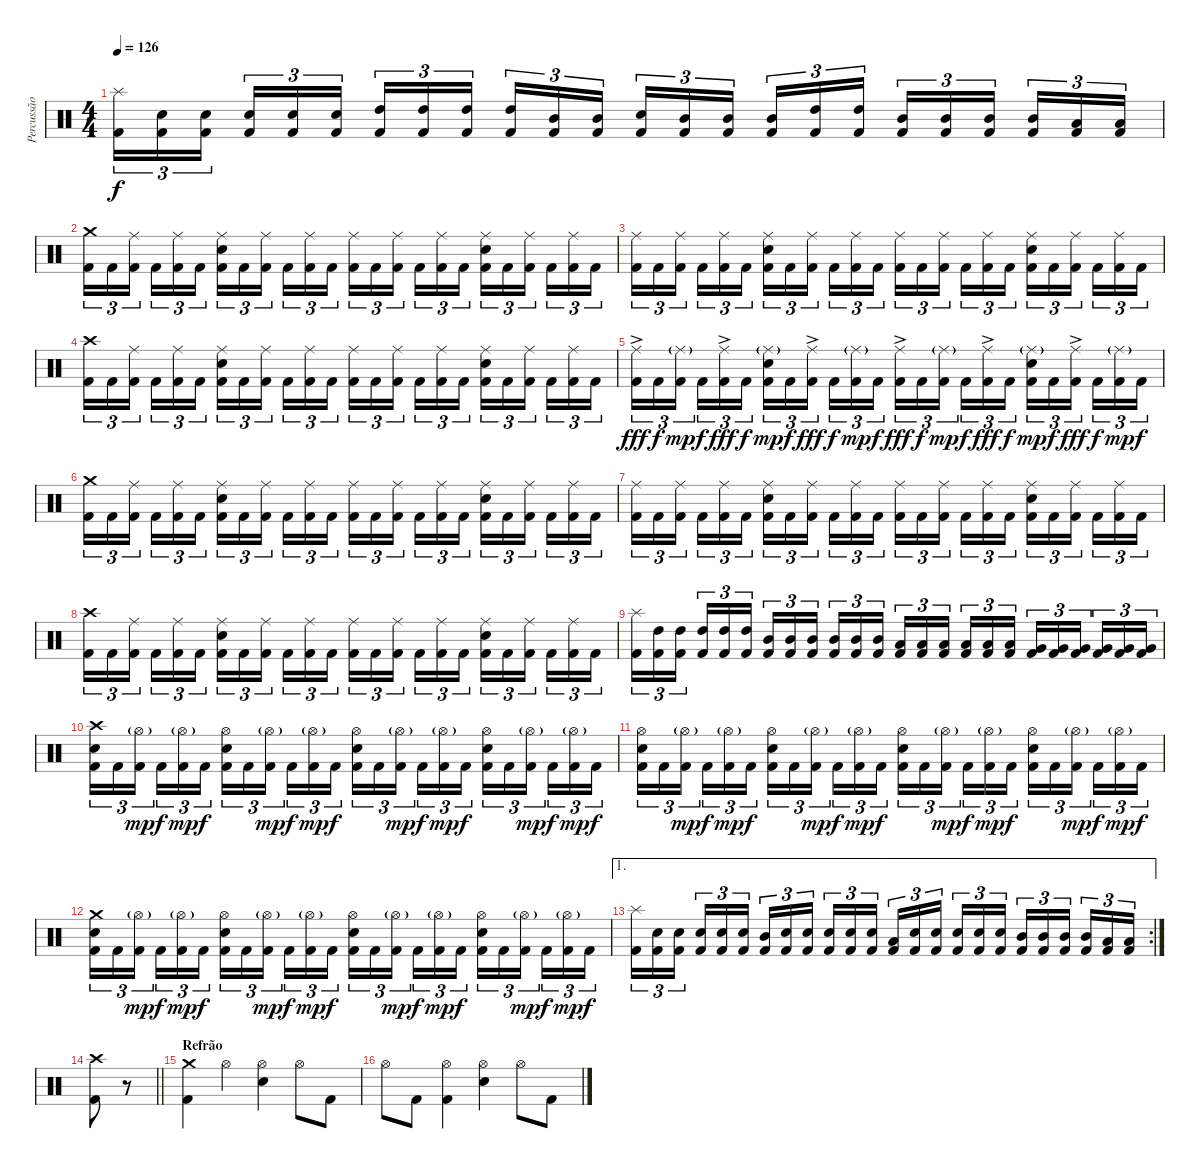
\track ("Percussão" "Percussão") {instrument percussion}
\staff {score}
\articulation defaults
\ts (4 4)
\tempo 126
\clef neutral
\ks c
("Splash (hit)" "Kick (hit) 2").16{tu (3 2) dy f} ("Electric Snare (hit)" "Kick (hit) 2").16{tu (3 2)} ("Electric Snare (hit)" "Kick (hit) 2").16{tu (3 2) beam splitsecondary} ("Electric Snare (hit)" "Kick (hit) 2").16{tu (3 2)} ("Electric Snare (hit)" "Kick (hit) 2").16{tu (3 2)} ("Electric Snare (hit)" "Kick (hit) 2").16{tu (3 2)} ("High Tom (hit)" "Kick (hit) 2").16{tu (3 2)} ("High Tom (hit)" "Kick (hit) 2").16{tu (3 2)} ("High Tom (hit)" "Kick (hit) 2").16{tu (3 2) beam splitsecondary} ("High Tom (hit)" "Kick (hit) 2").16{tu (3 2)} ("Mid Tom (hit)" "Kick (hit) 2").16{tu (3 2)} ("Mid Tom (hit)" "Kick (hit) 2").16{tu (3 2)} ("Electric Snare (hit)" "Kick (hit) 2").16{tu (3 2)} ("Mid Tom (hit)" "Kick (hit) 2").16{tu (3 2)} ("Mid Tom (hit)" "Kick (hit) 2").16{tu (3 2) beam splitsecondary} ("Mid Tom (hit)" "Kick (hit) 2").16{tu (3 2)} ("High Tom (hit)" "Kick (hit) 2").16{tu (3 2)} ("High Tom (hit)" "Kick (hit) 2").16{tu (3 2)} ("Mid Tom (hit)" "Kick (hit) 2").16{tu (3 2)} ("Mid Tom (hit)" "Kick (hit) 2").16{tu (3 2)} ("Mid Tom (hit)" "Kick (hit) 2").16{tu (3 2) beam splitsecondary} ("Mid Tom (hit)" "Kick (hit) 2").16{tu (3 2)} ("Low Tom (hit)" "Kick (hit) 2").16{tu (3 2)} ("Low Tom (hit)" "Kick (hit) 2").16{tu (3 2)} |
("Crash medium (hit)" "Kick (hit) 2").16{tu (3 2)} "Kick (hit) 2".16{tu (3 2)} ("Ride (middle)" "Kick (hit) 2").16{tu (3 2) beam splitsecondary} "Kick (hit) 2".16{tu (3 2)} ("Ride (middle)" "Kick (hit) 2").16{tu (3 2)} "Kick (hit) 2".16{tu (3 2)} ("Ride (middle)" "Electric Snare (hit)" "Kick (hit) 2").16{tu (3 2)} "Kick (hit) 2".16{tu (3 2)} ("Ride (middle)" "Kick (hit) 2").16{tu (3 2) beam splitsecondary} "Kick (hit) 2".16{tu (3 2)} ("Ride (middle)" "Kick (hit) 2").16{tu (3 2)} "Kick (hit) 2".16{tu (3 2)} ("Ride (middle)" "Kick (hit) 2").16{tu (3 2)} "Kick (hit) 2".16{tu (3 2)} ("Ride (middle)" "Kick (hit) 2").16{tu (3 2) beam splitsecondary} "Kick (hit) 2".16{tu (3 2)} ("Ride (middle)" "Kick (hit) 2").16{tu (3 2)} "Kick (hit) 2".16{tu (3 2)} ("Ride (middle)" "Electric Snare (hit)" "Kick (hit) 2").16{tu (3 2)} "Kick (hit) 2".16{tu (3 2)} ("Ride (middle)" "Kick (hit) 2").16{tu (3 2) beam splitsecondary} "Kick (hit) 2".16{tu (3 2)} ("Ride (middle)" "Kick (hit) 2").16{tu (3 2)} "Kick (hit) 2".16{tu (3 2)} |
("Ride (middle)" "Kick (hit) 2").16{tu (3 2)} "Kick (hit) 2".16{tu (3 2)} ("Ride (middle)" "Kick (hit) 2").16{tu (3 2) beam splitsecondary} "Kick (hit) 2".16{tu (3 2)} ("Ride (middle)" "Kick (hit) 2").16{tu (3 2)} "Kick (hit) 2".16{tu (3 2)} ("Ride (middle)" "Electric Snare (hit)" "Kick (hit) 2").16{tu (3 2)} "Kick (hit) 2".16{tu (3 2)} ("Ride (middle)" "Kick (hit) 2").16{tu (3 2) beam splitsecondary} "Kick (hit) 2".16{tu (3 2)} ("Ride (middle)" "Kick (hit) 2").16{tu (3 2)} "Kick (hit) 2".16{tu (3 2)} ("Ride (middle)" "Kick (hit) 2").16{tu (3 2)} "Kick (hit) 2".16{tu (3 2)} ("Ride (middle)" "Kick (hit) 2").16{tu (3 2) beam splitsecondary} "Kick (hit) 2".16{tu (3 2)} ("Ride (middle)" "Kick (hit) 2").16{tu (3 2)} "Kick (hit) 2".16{tu (3 2)} ("Ride (middle)" "Electric Snare (hit)" "Kick (hit) 2").16{tu (3 2)} "Kick (hit) 2".16{tu (3 2)} ("Ride (middle)" "Kick (hit) 2").16{tu (3 2) beam splitsecondary} "Kick (hit) 2".16{tu (3 2)} ("Ride (middle)" "Kick (hit) 2").16{tu (3 2)} "Kick (hit) 2".16{tu (3 2)} |
("Crash high (hit)" "Kick (hit) 2").16{tu (3 2)} "Kick (hit) 2".16{tu (3 2)} ("Ride (middle)" "Kick (hit) 2").16{tu (3 2) beam splitsecondary} "Kick (hit) 2".16{tu (3 2)} ("Ride (middle)" "Kick (hit) 2").16{tu (3 2)} "Kick (hit) 2".16{tu (3 2)} ("Ride (middle)" "Electric Snare (hit)" "Kick (hit) 2").16{tu (3 2)} "Kick (hit) 2".16{tu (3 2)} ("Ride (middle)" "Kick (hit) 2").16{tu (3 2) beam splitsecondary} "Kick (hit) 2".16{tu (3 2)} ("Ride (middle)" "Kick (hit) 2").16{tu (3 2)} "Kick (hit) 2".16{tu (3 2)} ("Ride (middle)" "Kick (hit) 2").16{tu (3 2)} "Kick (hit) 2".16{tu (3 2)} ("Ride (middle)" "Kick (hit) 2").16{tu (3 2) beam splitsecondary} "Kick (hit) 2".16{tu (3 2)} ("Ride (middle)" "Kick (hit) 2").16{tu (3 2)} "Kick (hit) 2".16{tu (3 2)} ("Ride (middle)" "Electric Snare (hit)" "Kick (hit) 2").16{tu (3 2)} "Kick (hit) 2".16{tu (3 2)} ("Ride (middle)" "Kick (hit) 2").16{tu (3 2) beam splitsecondary} "Kick (hit) 2".16{tu (3 2)} ("Ride (middle)" "Kick (hit) 2").16{tu (3 2)} "Kick (hit) 2".16{tu (3 2)} |
("Ride (middle)"{ac} "Kick (hit) 2").16{tu (3 2) dy fff} "Kick (hit) 2".16{tu (3 2) dy f} ("Ride (middle)"{g} "Kick (hit) 2").16{tu (3 2) dy mp beam splitsecondary} "Kick (hit) 2".16{tu (3 2) dy f} ("Ride (middle)"{ac} "Kick (hit) 2").16{tu (3 2) dy fff} "Kick (hit) 2".16{tu (3 2) dy f} ("Ride (middle)"{g} "Electric Snare (hit)" "Kick (hit) 2").16{tu (3 2) dy mp} "Kick (hit) 2".16{tu (3 2) dy f} ("Ride (middle)"{ac} "Kick (hit) 2").16{tu (3 2) dy fff beam splitsecondary} "Kick (hit) 2".16{tu (3 2) dy f} ("Ride (middle)"{g} "Kick (hit) 2").16{tu (3 2) dy mp} "Kick (hit) 2".16{tu (3 2) dy f} ("Ride (middle)"{ac} "Kick (hit) 2").16{tu (3 2) dy fff} "Kick (hit) 2".16{tu (3 2) dy f} ("Ride (middle)"{g} "Kick (hit) 2").16{tu (3 2) dy mp beam splitsecondary} "Kick (hit) 2".16{tu (3 2) dy f} ("Ride (middle)"{ac} "Kick (hit) 2").16{tu (3 2) dy fff} "Kick (hit) 2".16{tu (3 2) dy f} ("Ride (middle)"{g} "Electric Snare (hit)" "Kick (hit) 2").16{tu (3 2) dy mp} "Kick (hit) 2".16{tu (3 2) dy f} ("Ride (middle)"{ac} "Kick (hit) 2").16{tu (3 2) dy fff beam splitsecondary} "Kick (hit) 2".16{tu (3 2) dy f} ("Ride (middle)"{g} "Kick (hit) 2").16{tu (3 2) dy mp} "Kick (hit) 2".16{tu (3 2) dy f} |
("Crash medium (hit)" "Kick (hit) 2").16{tu (3 2)} "Kick (hit) 2".16{tu (3 2)} ("Ride (middle)" "Kick (hit) 2").16{tu (3 2) beam splitsecondary} "Kick (hit) 2".16{tu (3 2)} ("Ride (middle)" "Kick (hit) 2").16{tu (3 2)} "Kick (hit) 2".16{tu (3 2)} ("Ride (middle)" "Electric Snare (hit)" "Kick (hit) 2").16{tu (3 2)} "Kick (hit) 2".16{tu (3 2)} ("Ride (middle)" "Kick (hit) 2").16{tu (3 2) beam splitsecondary} "Kick (hit) 2".16{tu (3 2)} ("Ride (middle)" "Kick (hit) 2").16{tu (3 2)} "Kick (hit) 2".16{tu (3 2)} ("Ride (middle)" "Kick (hit) 2").16{tu (3 2)} "Kick (hit) 2".16{tu (3 2)} ("Ride (middle)" "Kick (hit) 2").16{tu (3 2) beam splitsecondary} "Kick (hit) 2".16{tu (3 2)} ("Ride (middle)" "Kick (hit) 2").16{tu (3 2)} "Kick (hit) 2".16{tu (3 2)} ("Ride (middle)" "Electric Snare (hit)" "Kick (hit) 2").16{tu (3 2)} "Kick (hit) 2".16{tu (3 2)} ("Ride (middle)" "Kick (hit) 2").16{tu (3 2) beam splitsecondary} "Kick (hit) 2".16{tu (3 2)} ("Ride (middle)" "Kick (hit) 2").16{tu (3 2)} "Kick (hit) 2".16{tu (3 2)} |
("Ride (middle)" "Kick (hit) 2").16{tu (3 2)} "Kick (hit) 2".16{tu (3 2)} ("Ride (middle)" "Kick (hit) 2").16{tu (3 2) beam splitsecondary} "Kick (hit) 2".16{tu (3 2)} ("Ride (middle)" "Kick (hit) 2").16{tu (3 2)} "Kick (hit) 2".16{tu (3 2)} ("Ride (middle)" "Electric Snare (hit)" "Kick (hit) 2").16{tu (3 2)} "Kick (hit) 2".16{tu (3 2)} ("Ride (middle)" "Kick (hit) 2").16{tu (3 2) beam splitsecondary} "Kick (hit) 2".16{tu (3 2)} ("Ride (middle)" "Kick (hit) 2").16{tu (3 2)} "Kick (hit) 2".16{tu (3 2)} ("Ride (middle)" "Kick (hit) 2").16{tu (3 2)} "Kick (hit) 2".16{tu (3 2)} ("Ride (middle)" "Kick (hit) 2").16{tu (3 2) beam splitsecondary} "Kick (hit) 2".16{tu (3 2)} ("Ride (middle)" "Kick (hit) 2").16{tu (3 2)} "Kick (hit) 2".16{tu (3 2)} ("Ride (middle)" "Electric Snare (hit)" "Kick (hit) 2").16{tu (3 2)} "Kick (hit) 2".16{tu (3 2)} ("Ride (middle)" "Kick (hit) 2").16{tu (3 2) beam splitsecondary} "Kick (hit) 2".16{tu (3 2)} ("Ride (middle)" "Kick (hit) 2").16{tu (3 2)} "Kick (hit) 2".16{tu (3 2)} |
("Crash high (hit)" "Kick (hit) 2").16{tu (3 2)} "Kick (hit) 2".16{tu (3 2)} ("Ride (middle)" "Kick (hit) 2").16{tu (3 2) beam splitsecondary} "Kick (hit) 2".16{tu (3 2)} ("Ride (middle)" "Kick (hit) 2").16{tu (3 2)} "Kick (hit) 2".16{tu (3 2)} ("Ride (middle)" "Electric Snare (hit)" "Kick (hit) 2").16{tu (3 2)} "Kick (hit) 2".16{tu (3 2)} ("Ride (middle)" "Kick (hit) 2").16{tu (3 2) beam splitsecondary} "Kick (hit) 2".16{tu (3 2)} ("Ride (middle)" "Kick (hit) 2").16{tu (3 2)} "Kick (hit) 2".16{tu (3 2)} ("Ride (middle)" "Kick (hit) 2").16{tu (3 2)} "Kick (hit) 2".16{tu (3 2)} ("Ride (middle)" "Kick (hit) 2").16{tu (3 2) beam splitsecondary} "Kick (hit) 2".16{tu (3 2)} ("Ride (middle)" "Kick (hit) 2").16{tu (3 2)} "Kick (hit) 2".16{tu (3 2)} ("Ride (middle)" "Electric Snare (hit)" "Kick (hit) 2").16{tu (3 2)} "Kick (hit) 2".16{tu (3 2)} ("Ride (middle)" "Kick (hit) 2").16{tu (3 2) beam splitsecondary} "Kick (hit) 2".16{tu (3 2)} ("Ride (middle)" "Kick (hit) 2").16{tu (3 2)} "Kick (hit) 2".16{tu (3 2)} |
("Splash (hit)" "Kick (hit) 2").16{tu (3 2)} ("High Tom (hit)" "Kick (hit) 2").16{tu (3 2)} ("High Tom (hit)" "Kick (hit) 2").16{tu (3 2) beam splitsecondary} ("High Tom (hit)" "Kick (hit) 2").16{tu (3 2)} ("High Tom (hit)" "Kick (hit) 2").16{tu (3 2)} ("High Tom (hit)" "Kick (hit) 2").16{tu (3 2)} ("Mid Tom (hit)" "Kick (hit) 2").16{tu (3 2)} ("Mid Tom (hit)" "Kick (hit) 2").16{tu (3 2)} ("Mid Tom (hit)" "Kick (hit) 2").16{tu (3 2) beam splitsecondary} ("Mid Tom (hit)" "Kick (hit) 2").16{tu (3 2)} ("Mid Tom (hit)" "Kick (hit) 2").16{tu (3 2)} ("Mid Tom (hit)" "Kick (hit) 2").16{tu (3 2)} ("Low Tom (hit)" "Kick (hit) 2").16{tu (3 2)} ("Low Tom (hit)" "Kick (hit) 2").16{tu (3 2)} ("Low Tom (hit)" "Kick (hit) 2").16{tu (3 2) beam splitsecondary} ("Low Tom (hit)" "Kick (hit) 2").16{tu (3 2)} ("Low Tom (hit)" "Kick (hit) 2").16{tu (3 2)} ("Low Tom (hit)" "Kick (hit) 2").16{tu (3 2)} ("Very Low Tom (hit)" "Kick (hit) 2").16{tu (3 2)} ("Very Low Tom (hit)" "Kick (hit) 2").16{tu (3 2)} ("Very Low Tom (hit)" "Kick (hit) 2").16{tu (3 2) beam splitsecondary} ("Very Low Tom (hit)" "Kick (hit) 2").16{tu (3 2)} ("Very Low Tom (hit)" "Kick (hit) 2").16{tu (3 2)} ("Very Low Tom (hit)" "Kick (hit) 2").16{tu (3 2)} |
("Crash high (hit)" "Electric Snare (hit)" "Kick (hit) 2").16{tu (3 2)} "Kick (hit) 2".16{tu (3 2)} ("Hi-Hat (open)"{g} "Kick (hit) 2").16{tu (3 2) dy mp beam splitsecondary} "Kick (hit) 2".16{tu (3 2) dy f} ("Hi-Hat (open)"{g} "Kick (hit) 2").16{tu (3 2) dy mp} "Kick (hit) 2".16{tu (3 2) dy f} ("Hi-Hat (open)" "Electric Snare (hit)" "Kick (hit) 2").16{tu (3 2)} "Kick (hit) 2".16{tu (3 2)} ("Hi-Hat (open)"{g} "Kick (hit) 2").16{tu (3 2) dy mp beam splitsecondary} "Kick (hit) 2".16{tu (3 2) dy f} ("Hi-Hat (open)"{g} "Kick (hit) 2").16{tu (3 2) dy mp} "Kick (hit) 2".16{tu (3 2) dy f} ("Hi-Hat (open)" "Electric Snare (hit)" "Kick (hit) 2").16{tu (3 2)} "Kick (hit) 2".16{tu (3 2)} ("Hi-Hat (open)"{g} "Kick (hit) 2").16{tu (3 2) dy mp beam splitsecondary} "Kick (hit) 2".16{tu (3 2) dy f} ("Hi-Hat (open)"{g} "Kick (hit) 2").16{tu (3 2) dy mp} "Kick (hit) 2".16{tu (3 2) dy f} ("Hi-Hat (open)" "Electric Snare (hit)" "Kick (hit) 2").16{tu (3 2)} "Kick (hit) 2".16{tu (3 2)} ("Hi-Hat (open)"{g} "Kick (hit) 2").16{tu (3 2) dy mp beam splitsecondary} "Kick (hit) 2".16{tu (3 2) dy f} ("Hi-Hat (open)"{g} "Kick (hit) 2").16{tu (3 2) dy mp} "Kick (hit) 2".16{tu (3 2) dy f} |
("Hi-Hat (open)" "Electric Snare (hit)" "Kick (hit) 2").16{tu (3 2)} "Kick (hit) 2".16{tu (3 2)} ("Hi-Hat (open)"{g} "Kick (hit) 2").16{tu (3 2) dy mp beam splitsecondary} "Kick (hit) 2".16{tu (3 2) dy f} ("Hi-Hat (open)"{g} "Kick (hit) 2").16{tu (3 2) dy mp} "Kick (hit) 2".16{tu (3 2) dy f} ("Hi-Hat (open)" "Electric Snare (hit)" "Kick (hit) 2").16{tu (3 2)} "Kick (hit) 2".16{tu (3 2)} ("Hi-Hat (open)"{g} "Kick (hit) 2").16{tu (3 2) dy mp beam splitsecondary} "Kick (hit) 2".16{tu (3 2) dy f} ("Hi-Hat (open)"{g} "Kick (hit) 2").16{tu (3 2) dy mp} "Kick (hit) 2".16{tu (3 2) dy f} ("Hi-Hat (open)" "Electric Snare (hit)" "Kick (hit) 2").16{tu (3 2)} "Kick (hit) 2".16{tu (3 2)} ("Hi-Hat (open)"{g} "Kick (hit) 2").16{tu (3 2) dy mp beam splitsecondary} "Kick (hit) 2".16{tu (3 2) dy f} ("Hi-Hat (open)"{g} "Kick (hit) 2").16{tu (3 2) dy mp} "Kick (hit) 2".16{tu (3 2) dy f} ("Hi-Hat (open)" "Electric Snare (hit)" "Kick (hit) 2").16{tu (3 2)} "Kick (hit) 2".16{tu (3 2)} ("Hi-Hat (open)"{g} "Kick (hit) 2").16{tu (3 2) dy mp beam splitsecondary} "Kick (hit) 2".16{tu (3 2) dy f} ("Hi-Hat (open)"{g} "Kick (hit) 2").16{tu (3 2) dy mp} "Kick (hit) 2".16{tu (3 2) dy f} |
("Crash medium (hit)" "Electric Snare (hit)" "Kick (hit) 2").16{tu (3 2)} "Kick (hit) 2".16{tu (3 2)} ("Hi-Hat (open)"{g} "Kick (hit) 2").16{tu (3 2) dy mp beam splitsecondary} "Kick (hit) 2".16{tu (3 2) dy f} ("Hi-Hat (open)"{g} "Kick (hit) 2").16{tu (3 2) dy mp} "Kick (hit) 2".16{tu (3 2) dy f} ("Hi-Hat (open)" "Electric Snare (hit)" "Kick (hit) 2").16{tu (3 2)} "Kick (hit) 2".16{tu (3 2)} ("Hi-Hat (open)"{g} "Kick (hit) 2").16{tu (3 2) dy mp beam splitsecondary} "Kick (hit) 2".16{tu (3 2) dy f} ("Hi-Hat (open)"{g} "Kick (hit) 2").16{tu (3 2) dy mp} "Kick (hit) 2".16{tu (3 2) dy f} ("Hi-Hat (open)" "Electric Snare (hit)" "Kick (hit) 2").16{tu (3 2)} "Kick (hit) 2".16{tu (3 2)} ("Hi-Hat (open)"{g} "Kick (hit) 2").16{tu (3 2) dy mp beam splitsecondary} "Kick (hit) 2".16{tu (3 2) dy f} ("Hi-Hat (open)"{g} "Kick (hit) 2").16{tu (3 2) dy mp} "Kick (hit) 2".16{tu (3 2) dy f} ("Hi-Hat (open)" "Electric Snare (hit)" "Kick (hit) 2").16{tu (3 2)} "Kick (hit) 2".16{tu (3 2)} ("Hi-Hat (open)"{g} "Kick (hit) 2").16{tu (3 2) dy mp beam splitsecondary} "Kick (hit) 2".16{tu (3 2) dy f} ("Hi-Hat (open)"{g} "Kick (hit) 2").16{tu (3 2) dy mp} "Kick (hit) 2".16{tu (3 2) dy f} |
\ae 1
\rc 2
("Splash (hit)" "Kick (hit) 2").16{tu (3 2)} ("Electric Snare (hit)" "Kick (hit) 2").16{tu (3 2)} ("Electric Snare (hit)" "Kick (hit) 2").16{tu (3 2) beam splitsecondary} ("Electric Snare (hit)" "Kick (hit) 2").16{tu (3 2)} ("Electric Snare (hit)" "Kick (hit) 2").16{tu (3 2)} ("Electric Snare (hit)" "Kick (hit) 2").16{tu (3 2)} ("Mid Tom (hit)" "Kick (hit) 2").16{tu (3 2)} ("Electric Snare (hit)" "Kick (hit) 2").16{tu (3 2)} ("Electric Snare (hit)" "Kick (hit) 2").16{tu (3 2) beam splitsecondary} ("Electric Snare (hit)" "Kick (hit) 2").16{tu (3 2)} ("Electric Snare (hit)" "Kick (hit) 2").16{tu (3 2)} ("Electric Snare (hit)" "Kick (hit) 2").16{tu (3 2)} ("Low Tom (hit)" "Kick (hit) 2").16{tu (3 2)} ("Electric Snare (hit)" "Kick (hit) 2").16{tu (3 2)} ("Electric Snare (hit)" "Kick (hit) 2").16{tu (3 2) beam splitsecondary} ("Electric Snare (hit)" "Kick (hit) 2").16{tu (3 2)} ("Electric Snare (hit)" "Kick (hit) 2").16{tu (3 2)} ("Electric Snare (hit)" "Kick (hit) 2").16{tu (3 2)} ("Mid Tom (hit)" "Kick (hit) 2").16{tu (3 2)} ("Mid Tom (hit)" "Kick (hit) 2").16{tu (3 2)} ("Mid Tom (hit)" "Kick (hit) 2").16{tu (3 2) beam splitsecondary} ("Mid Tom (hit)" "Kick (hit) 2").16{tu (3 2)} ("Low Tom (hit)" "Kick (hit) 2").16{tu (3 2)} ("Low Tom (hit)" "Kick (hit) 2").16{tu (3 2)} |
\barLineRight lightlight
("Crash high (hit)" "Kick (hit) 2").8 r.8{volume 0} |
\section ("" "Refrão")
("Crash medium (hit)" "Kick (hit) 2").4{volume 15} "Hi-Hat (open)".4 ("Hi-Hat (open)" "Electric Snare (hit)").4 "Hi-Hat (open)".8 "Kick (hit) 2".8 |
"Hi-Hat (open)".8 "Kick (hit) 2".8 ("Hi-Hat (open)" "Kick (hit) 2").4 ("Hi-Hat (open)" "Electric Snare (hit)").4 "Hi-Hat (open)".8 "Kick (hit) 2".8
